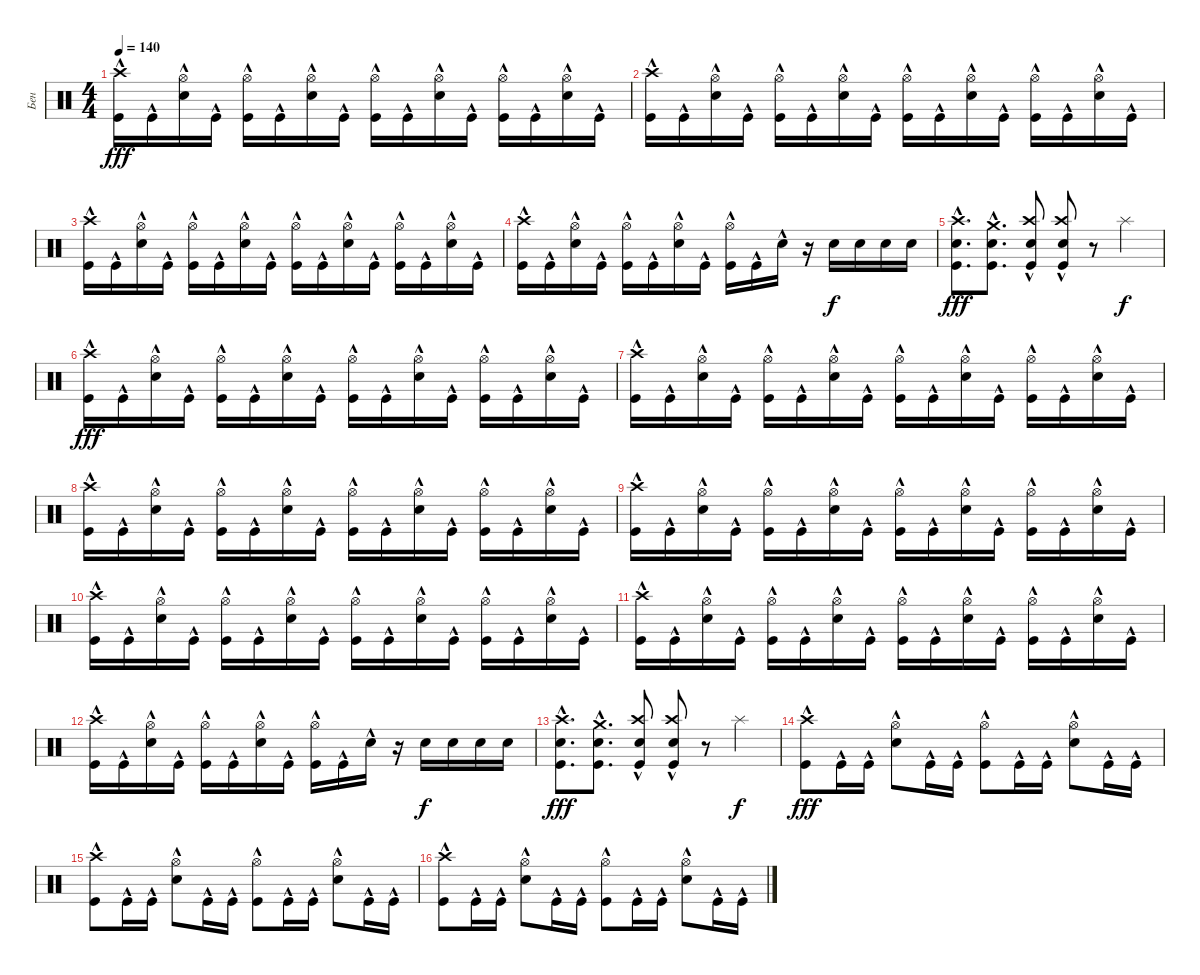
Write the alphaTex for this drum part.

\track ("Бен" "Бен") {instrument percussion}
\staff {score}
\articulation defaults
\ts (4 4)
\tempo 140
\clef neutral
\ks c
("Kick (hit)"{hac} "Crash high (hit)"{hac}).16{dy fff} "Kick (hit)"{hac}.16 ("Snare (hit) 2"{hac} "Hi-Hat (open)").16 "Kick (hit)"{hac}.16 ("Kick (hit)"{hac} "Hi-Hat (open)").16 "Kick (hit)"{hac}.16 ("Snare (hit) 2"{hac} "Hi-Hat (open)").16 "Kick (hit)"{hac}.16 ("Kick (hit)"{hac} "Hi-Hat (open)").16 "Kick (hit)"{hac}.16 ("Snare (hit) 2"{hac} "Hi-Hat (open)").16 "Kick (hit)"{hac}.16 ("Kick (hit)"{hac} "Hi-Hat (open)").16 "Kick (hit)"{hac}.16 ("Snare (hit) 2"{hac} "Hi-Hat (open)").16 "Kick (hit)"{hac}.16 |
("Kick (hit)"{hac} "Crash high (hit)"{hac}).16 "Kick (hit)"{hac}.16 ("Snare (hit) 2"{hac} "Hi-Hat (open)").16 "Kick (hit)"{hac}.16 ("Kick (hit)"{hac} "Hi-Hat (open)").16 "Kick (hit)"{hac}.16 ("Snare (hit) 2"{hac} "Hi-Hat (open)").16 "Kick (hit)"{hac}.16 ("Kick (hit)"{hac} "Hi-Hat (open)").16 "Kick (hit)"{hac}.16 ("Snare (hit) 2"{hac} "Hi-Hat (open)").16 "Kick (hit)"{hac}.16 ("Kick (hit)"{hac} "Hi-Hat (open)").16 "Kick (hit)"{hac}.16 ("Snare (hit) 2"{hac} "Hi-Hat (open)").16 "Kick (hit)"{hac}.16 |
("Kick (hit)"{hac} "Crash high (hit)"{hac}).16 "Kick (hit)"{hac}.16 ("Snare (hit) 2"{hac} "Hi-Hat (open)").16 "Kick (hit)"{hac}.16 ("Kick (hit)"{hac} "Hi-Hat (open)").16 "Kick (hit)"{hac}.16 ("Snare (hit) 2"{hac} "Hi-Hat (open)").16 "Kick (hit)"{hac}.16 ("Kick (hit)"{hac} "Hi-Hat (open)").16 "Kick (hit)"{hac}.16 ("Snare (hit) 2"{hac} "Hi-Hat (open)").16 "Kick (hit)"{hac}.16 ("Kick (hit)"{hac} "Hi-Hat (open)").16 "Kick (hit)"{hac}.16 ("Snare (hit) 2"{hac} "Hi-Hat (open)").16 "Kick (hit)"{hac}.16 |
("Kick (hit)"{hac} "Crash high (hit)"{hac}).16 "Kick (hit)"{hac}.16 ("Snare (hit) 2"{hac} "Hi-Hat (open)").16 "Kick (hit)"{hac}.16 ("Kick (hit)"{hac} "Hi-Hat (open)").16 "Kick (hit)"{hac}.16 ("Snare (hit) 2"{hac} "Hi-Hat (open)").16 "Kick (hit)"{hac}.16 ("Kick (hit)"{hac} "Hi-Hat (open)").16 "Kick (hit)"{hac}.16 "Snare (hit) 2"{hac}.16 r.16 "Snare (hit) 2".16{dy f} "Snare (hit) 2".16 "Snare (hit) 2".16 "Snare (hit) 2".16 |
("Snare (hit) 2"{hac} "Crash high (hit)"{hac} "Kick (hit)"{hac}).8{d dy fff} ("Snare (hit) 2"{hac} "Crash medium (hit)"{hac} "Kick (hit)"{hac}).8{d} ("Snare (hit) 2"{hac} "Crash high (hit)"{hac} "Kick (hit)"{hac}).8 ("Snare (hit) 2"{hac} "Crash high (hit)"{hac} "Kick (hit)"{hac}).8 r.8 "Splash (hit)".4{dy f} |
("Kick (hit)"{hac} "Crash high (hit)"{hac}).16{dy fff} "Kick (hit)"{hac}.16 ("Snare (hit) 2"{hac} "Hi-Hat (open)").16 "Kick (hit)"{hac}.16 ("Kick (hit)"{hac} "Hi-Hat (open)").16 "Kick (hit)"{hac}.16 ("Snare (hit) 2"{hac} "Hi-Hat (open)").16 "Kick (hit)"{hac}.16 ("Kick (hit)"{hac} "Hi-Hat (open)").16 "Kick (hit)"{hac}.16 ("Snare (hit) 2"{hac} "Hi-Hat (open)").16 "Kick (hit)"{hac}.16 ("Kick (hit)"{hac} "Hi-Hat (open)").16 "Kick (hit)"{hac}.16 ("Snare (hit) 2"{hac} "Hi-Hat (open)").16 "Kick (hit)"{hac}.16 |
("Kick (hit)"{hac} "Crash high (hit)"{hac}).16 "Kick (hit)"{hac}.16 ("Snare (hit) 2"{hac} "Hi-Hat (open)").16 "Kick (hit)"{hac}.16 ("Kick (hit)"{hac} "Hi-Hat (open)").16 "Kick (hit)"{hac}.16 ("Snare (hit) 2"{hac} "Hi-Hat (open)").16 "Kick (hit)"{hac}.16 ("Kick (hit)"{hac} "Hi-Hat (open)").16 "Kick (hit)"{hac}.16 ("Snare (hit) 2"{hac} "Hi-Hat (open)").16 "Kick (hit)"{hac}.16 ("Kick (hit)"{hac} "Hi-Hat (open)").16 "Kick (hit)"{hac}.16 ("Snare (hit) 2"{hac} "Hi-Hat (open)").16 "Kick (hit)"{hac}.16 |
("Kick (hit)"{hac} "Crash high (hit)"{hac}).16 "Kick (hit)"{hac}.16 ("Snare (hit) 2"{hac} "Hi-Hat (open)").16 "Kick (hit)"{hac}.16 ("Kick (hit)"{hac} "Hi-Hat (open)").16 "Kick (hit)"{hac}.16 ("Snare (hit) 2"{hac} "Hi-Hat (open)").16 "Kick (hit)"{hac}.16 ("Kick (hit)"{hac} "Hi-Hat (open)").16 "Kick (hit)"{hac}.16 ("Snare (hit) 2"{hac} "Hi-Hat (open)").16 "Kick (hit)"{hac}.16 ("Kick (hit)"{hac} "Hi-Hat (open)").16 "Kick (hit)"{hac}.16 ("Snare (hit) 2"{hac} "Hi-Hat (open)").16 "Kick (hit)"{hac}.16 |
("Kick (hit)"{hac} "Crash high (hit)"{hac}).16 "Kick (hit)"{hac}.16 ("Snare (hit) 2"{hac} "Hi-Hat (open)").16 "Kick (hit)"{hac}.16 ("Kick (hit)"{hac} "Hi-Hat (open)").16 "Kick (hit)"{hac}.16 ("Snare (hit) 2"{hac} "Hi-Hat (open)").16 "Kick (hit)"{hac}.16 ("Kick (hit)"{hac} "Hi-Hat (open)").16 "Kick (hit)"{hac}.16 ("Snare (hit) 2"{hac} "Hi-Hat (open)").16 "Kick (hit)"{hac}.16 ("Kick (hit)"{hac} "Hi-Hat (open)").16 "Kick (hit)"{hac}.16 ("Snare (hit) 2"{hac} "Hi-Hat (open)").16 "Kick (hit)"{hac}.16 |
("Kick (hit)"{hac} "Crash high (hit)"{hac}).16 "Kick (hit)"{hac}.16 ("Snare (hit) 2"{hac} "Hi-Hat (open)").16 "Kick (hit)"{hac}.16 ("Kick (hit)"{hac} "Hi-Hat (open)").16 "Kick (hit)"{hac}.16 ("Snare (hit) 2"{hac} "Hi-Hat (open)").16 "Kick (hit)"{hac}.16 ("Kick (hit)"{hac} "Hi-Hat (open)").16 "Kick (hit)"{hac}.16 ("Snare (hit) 2"{hac} "Hi-Hat (open)").16 "Kick (hit)"{hac}.16 ("Kick (hit)"{hac} "Hi-Hat (open)").16 "Kick (hit)"{hac}.16 ("Snare (hit) 2"{hac} "Hi-Hat (open)").16 "Kick (hit)"{hac}.16 |
("Kick (hit)"{hac} "Crash high (hit)"{hac}).16 "Kick (hit)"{hac}.16 ("Snare (hit) 2"{hac} "Hi-Hat (open)").16 "Kick (hit)"{hac}.16 ("Kick (hit)"{hac} "Hi-Hat (open)").16 "Kick (hit)"{hac}.16 ("Snare (hit) 2"{hac} "Hi-Hat (open)").16 "Kick (hit)"{hac}.16 ("Kick (hit)"{hac} "Hi-Hat (open)").16 "Kick (hit)"{hac}.16 ("Snare (hit) 2"{hac} "Hi-Hat (open)").16 "Kick (hit)"{hac}.16 ("Kick (hit)"{hac} "Hi-Hat (open)").16 "Kick (hit)"{hac}.16 ("Snare (hit) 2"{hac} "Hi-Hat (open)").16 "Kick (hit)"{hac}.16 |
("Kick (hit)"{hac} "Crash high (hit)"{hac}).16 "Kick (hit)"{hac}.16 ("Snare (hit) 2"{hac} "Hi-Hat (open)").16 "Kick (hit)"{hac}.16 ("Kick (hit)"{hac} "Hi-Hat (open)").16 "Kick (hit)"{hac}.16 ("Snare (hit) 2"{hac} "Hi-Hat (open)").16 "Kick (hit)"{hac}.16 ("Kick (hit)"{hac} "Hi-Hat (open)").16 "Kick (hit)"{hac}.16 "Snare (hit) 2"{hac}.16 r.16 "Snare (hit) 2".16{dy f} "Snare (hit) 2".16 "Snare (hit) 2".16 "Snare (hit) 2".16 |
("Snare (hit) 2"{hac} "Crash high (hit)"{hac} "Kick (hit)"{hac}).8{d dy fff} ("Snare (hit) 2"{hac} "Crash medium (hit)"{hac} "Kick (hit)"{hac}).8{d} ("Snare (hit) 2"{hac} "Crash high (hit)"{hac} "Kick (hit)"{hac}).8 ("Snare (hit) 2"{hac} "Crash high (hit)"{hac} "Kick (hit)"{hac}).8 r.8 "Splash (hit)".4{dy f} |
("Kick (hit)"{hac} "Crash high (hit)"{hac}).8{dy fff} "Kick (hit)"{hac}.16 "Kick (hit)"{hac}.16 ("Snare (hit) 2"{hac} "Hi-Hat (open)").8 "Kick (hit)"{hac}.16 "Kick (hit)"{hac}.16 ("Kick (hit)"{hac} "Hi-Hat (open)").8 "Kick (hit)"{hac}.16 "Kick (hit)"{hac}.16 ("Snare (hit) 2"{hac} "Hi-Hat (open)").8 "Kick (hit)"{hac}.16 "Kick (hit)"{hac}.16 |
("Kick (hit)"{hac} "Crash high (hit)"{hac}).8 "Kick (hit)"{hac}.16 "Kick (hit)"{hac}.16 ("Snare (hit) 2"{hac} "Hi-Hat (open)").8 "Kick (hit)"{hac}.16 "Kick (hit)"{hac}.16 ("Kick (hit)"{hac} "Hi-Hat (open)").8 "Kick (hit)"{hac}.16 "Kick (hit)"{hac}.16 ("Snare (hit) 2"{hac} "Hi-Hat (open)").8 "Kick (hit)"{hac}.16 "Kick (hit)"{hac}.16 |
("Kick (hit)"{hac} "Crash high (hit)"{hac}).8 "Kick (hit)"{hac}.16 "Kick (hit)"{hac}.16 ("Snare (hit) 2"{hac} "Hi-Hat (open)").8 "Kick (hit)"{hac}.16 "Kick (hit)"{hac}.16 ("Kick (hit)"{hac} "Hi-Hat (open)").8 "Kick (hit)"{hac}.16 "Kick (hit)"{hac}.16 ("Snare (hit) 2"{hac} "Hi-Hat (open)").8 "Kick (hit)"{hac}.16 "Kick (hit)"{hac}.16
